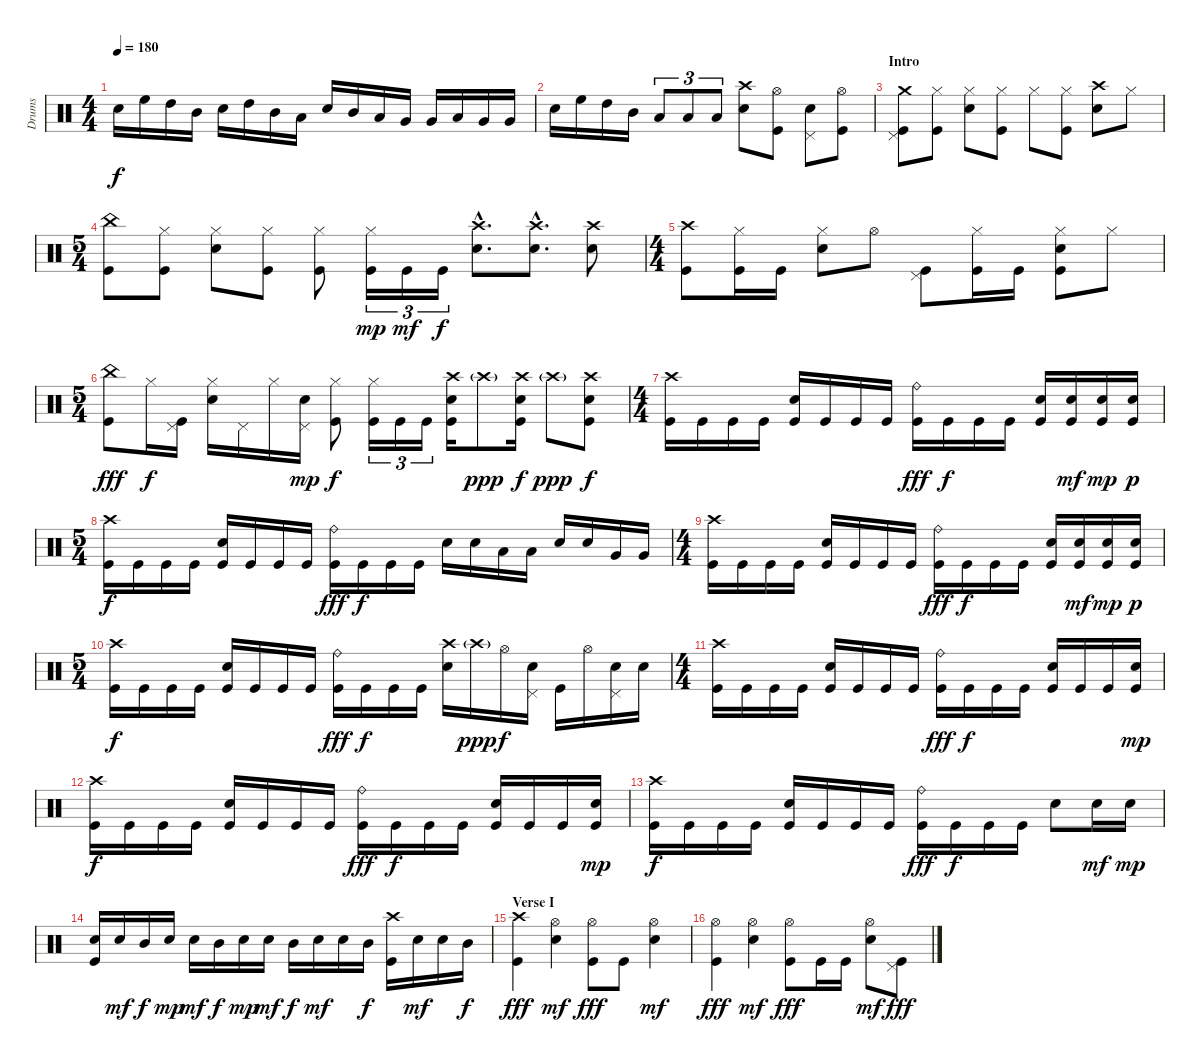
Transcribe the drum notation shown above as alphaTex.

\track ("Drums" "Drums") {instrument percussion}
\staff {score}
\articulation defaults
\ts (4 4)
\tempo 180
\clef neutral
\ks c "Electric Snare (hit)".16{dy f} "High Floor Tom (hit)".16 "High Tom (hit)".16 "Mid Tom (hit)".16 "Electric Snare (hit)".16 "High Tom (hit)".16 "Mid Tom (hit)".16 "Low Tom (hit)".16 "Electric Snare (hit)".16 "Mid Tom (hit)".16 "Low Tom (hit)".16 "Very Low Tom (hit)".16 "Very Low Tom (hit)".16 "Low Floor Tom (hit)".16 "Very Low Tom (hit)".16 "Very Low Tom (hit)".16
|
"Electric Snare (hit)".16 "High Floor Tom (hit)".16 "High Tom (hit)".16 "Mid Tom (hit)".16 "Low Tom (hit)".8{tu (3 2)} "Low Tom (hit)".8{tu (3 2)} "Low Tom (hit)".8{tu (3 2)} ("Crash high (hit)" "Electric Snare (hit)").8 ("Hi-Hat (open)" "Kick (hit)").8 ("Pedal Hi-Hat (hit)" "Electric Snare (hit)").8 ("Hi-Hat (open)" "Kick (hit)").8 |
\section ("" "Intro")
("Crash medium (hit)" "Pedal Hi-Hat (hit)" "Kick (hit)").8 ("Hi-Hat (closed)" "Kick (hit)").8 ("Hi-Hat (closed)" "Electric Snare (hit)").8 ("Hi-Hat (closed)" "Kick (hit)").8 "Hi-Hat (closed)".8 ("Hi-Hat (closed)" "Kick (hit)").8 ("Crash high (hit)" "Electric Snare (hit)").8 "Hi-Hat (closed)".8 |
\ts (5 4)
("China (hit)" "Kick (hit)").8 ("Hi-Hat (closed)" "Kick (hit)").8 ("Hi-Hat (closed)" "Electric Snare (hit)").8 ("Hi-Hat (closed)" "Kick (hit)").8 ("Hi-Hat (closed)" "Kick (hit)").8 ("Hi-Hat (closed)" "Kick (hit)").16{tu (3 2) dy mp} "Kick (hit)".16{tu (3 2) dy mf} "Kick (hit)".16{tu (3 2) dy f} ("Crash high (hit)"{hac} "Electric Snare (hit)"{hac}).8{d} ("Crash high (hit)"{hac} "Electric Snare (hit)"{hac}).8{d} ("Crash high (hit)" "Electric Snare (hit)").8 |
\ts (4 4)
("Crash high (hit)" "Kick (hit)").8 ("Hi-Hat (closed)" "Kick (hit)").16 "Kick (hit)".16 ("Hi-Hat (closed)" "Electric Snare (hit)").8 "Hi-Hat (open)".8 ("Pedal Hi-Hat (hit)" "Kick (hit)").8 ("Hi-Hat (closed)" "Kick (hit)").16 "Kick (hit)".16 ("Hi-Hat (closed)" "Electric Snare (hit)" "Kick (hit)").8 "Hi-Hat (closed)".8 |
\ts (5 4)
("China (hit)" "Kick (hit)").8{dy fff} "Hi-Hat (closed)".16{dy f} ("Pedal Hi-Hat (hit)" "Kick (hit)").16 ("Hi-Hat (closed)" "Electric Snare (hit)").16 "Pedal Hi-Hat (hit)".16 "Hi-Hat (closed)".16 ("Pedal Hi-Hat (hit)" "Electric Snare (hit)").16{dy mp} ("Hi-Hat (closed)" "Kick (hit)").8{dy f} ("Hi-Hat (closed)" "Kick (hit)").16{tu (3 2)} "Kick (hit)".16{tu (3 2)} "Kick (hit)".16{tu (3 2)} ("Crash high (hit)" "Electric Snare (hit)" "Kick (hit)").16 "Crash high (hit)"{g}.8{dy ppp} ("Crash high (hit)" "Electric Snare (hit)" "Kick (hit)").16{dy f} "Crash high (hit)"{g}.8{dy ppp} ("Crash high (hit)" "Electric Snare (hit)" "Kick (hit)").8{dy f} |
\ts (4 4)
("Crash high (hit)" "Kick (hit)").16 "Kick (hit)".16 "Kick (hit)".16 "Kick (hit)".16 ("Electric Snare (hit)" "Kick (hit)").16 "Kick (hit)".16 "Kick (hit)".16 "Kick (hit)".16 ("Ride (bell)" "Kick (hit)").16{dy fff} "Kick (hit)".16{dy f} "Kick (hit)".16 "Kick (hit)".16 ("Electric Snare (hit)" "Kick (hit)").16 ("Electric Snare (hit)" "Kick (hit)").16{dy mf} ("Electric Snare (hit)" "Kick (hit)").16{dy mp} ("Electric Snare (hit)" "Kick (hit)").16{dy p} |
\ts (5 4)
("Crash high (hit)" "Kick (hit)").16{dy f} "Kick (hit)".16 "Kick (hit)".16 "Kick (hit)".16 ("Electric Snare (hit)" "Kick (hit)").16 "Kick (hit)".16 "Kick (hit)".16 "Kick (hit)".16 ("Ride (bell)" "Kick (hit)").16{dy fff} "Kick (hit)".16{dy f} "Kick (hit)".16 "Kick (hit)".16 "Electric Snare (hit)".16 "Electric Snare (hit)".16 "Low Tom (hit)".16 "Low Tom (hit)".16 "Electric Snare (hit)".16 "Electric Snare (hit)".16 "Very Low Tom (hit)".16 "Very Low Tom (hit)".16 |
\ts (4 4)
("Crash high (hit)" "Kick (hit)").16 "Kick (hit)".16 "Kick (hit)".16 "Kick (hit)".16 ("Electric Snare (hit)" "Kick (hit)").16 "Kick (hit)".16 "Kick (hit)".16 "Kick (hit)".16 ("Ride (bell)" "Kick (hit)").16{dy fff} "Kick (hit)".16{dy f} "Kick (hit)".16 "Kick (hit)".16 ("Electric Snare (hit)" "Kick (hit)").16 ("Electric Snare (hit)" "Kick (hit)").16{dy mf} ("Electric Snare (hit)" "Kick (hit)").16{dy mp} ("Electric Snare (hit)" "Kick (hit)").16{dy p} |
\ts (5 4)
("Crash high (hit)" "Kick (hit)").16{dy f} "Kick (hit)".16 "Kick (hit)".16 "Kick (hit)".16 ("Electric Snare (hit)" "Kick (hit)").16 "Kick (hit)".16 "Kick (hit)".16 "Kick (hit)".16 ("Ride (bell)" "Kick (hit)").16{dy fff} "Kick (hit)".16{dy f} "Kick (hit)".16 "Kick (hit)".16 ("Crash high (hit)" "Electric Snare (hit)").16 "Crash high (hit)"{g}.16{dy ppp} "Hi-Hat (open)".16{dy f} ("Pedal Hi-Hat (hit)" "Electric Snare (hit)").16 "Kick (hit)".16 "Hi-Hat (open)".16 ("Pedal Hi-Hat (hit)" "Electric Snare (hit)").16 "Electric Snare (hit)".16 |
\ts (4 4)
("Crash high (hit)" "Kick (hit)").16 "Kick (hit)".16 "Kick (hit)".16 "Kick (hit)".16 ("Electric Snare (hit)" "Kick (hit)").16 "Kick (hit)".16 "Kick (hit)".16 "Kick (hit)".16 ("Ride (bell)" "Kick (hit)").16{dy fff} "Kick (hit)".16{dy f} "Kick (hit)".16 "Kick (hit)".16 ("Electric Snare (hit)" "Kick (hit)").16 "Kick (hit)".16 "Kick (hit)".16 ("Electric Snare (hit)" "Kick (hit)").16{dy mp} |
("Crash high (hit)" "Kick (hit)").16{dy f} "Kick (hit)".16 "Kick (hit)".16 "Kick (hit)".16 ("Electric Snare (hit)" "Kick (hit)").16 "Kick (hit)".16 "Kick (hit)".16 "Kick (hit)".16 ("Ride (bell)" "Kick (hit)").16{dy fff} "Kick (hit)".16{dy f} "Kick (hit)".16 "Kick (hit)".16 ("Electric Snare (hit)" "Kick (hit)").16 "Kick (hit)".16 "Kick (hit)".16 ("Electric Snare (hit)" "Kick (hit)").16{dy mp} |
("Crash high (hit)" "Kick (hit)").16{dy f} "Kick (hit)".16 "Kick (hit)".16 "Kick (hit)".16 ("Electric Snare (hit)" "Kick (hit)").16 "Kick (hit)".16 "Kick (hit)".16 "Kick (hit)".16 ("Ride (bell)" "Kick (hit)").16{dy fff} "Kick (hit)".16{dy f} "Kick (hit)".16 "Kick (hit)".16 "Electric Snare (hit)".8 "Electric Snare (hit)".16{dy mf} "Electric Snare (hit)".16{dy mp} |
("Electric Snare (hit)" "Kick (hit)").16 "Electric Snare (hit)".16{dy mf} "Mid Tom (hit)".16{dy f} "Electric Snare (hit)".16{dy mp} "Electric Snare (hit)".16{dy mf} "Mid Tom (hit)".16{dy f} "Electric Snare (hit)".16{dy mp} "Electric Snare (hit)".16{dy mf} "Mid Tom (hit)".16{dy f} "Electric Snare (hit)".16{dy mf} "Electric Snare (hit)".16 "Mid Tom (hit)".16{dy f} ("Crash high (hit)" "Kick (hit)").16 "Electric Snare (hit)".16{dy mf} "Electric Snare (hit)".16 "Mid Tom (hit)".16{dy f} |
\section ("" "Verse I")
("Crash high (hit)" "Kick (hit)").4{dy fff} ("Hi-Hat (open)" "Electric Snare (hit)").4{dy mf} ("Hi-Hat (open)" "Kick (hit)").8{dy fff} "Kick (hit)".8 ("Hi-Hat (open)" "Electric Snare (hit)").4{dy mf} |
("Hi-Hat (open)" "Kick (hit)").4{dy fff} ("Hi-Hat (open)" "Electric Snare (hit)").4{dy mf} ("Hi-Hat (open)" "Kick (hit)").8{dy fff} "Kick (hit)".16 "Kick (hit)".16 ("Hi-Hat (open)" "Electric Snare (hit)").8{dy mf} ("Pedal Hi-Hat (hit)" "Kick (hit)").8{dy fff}
